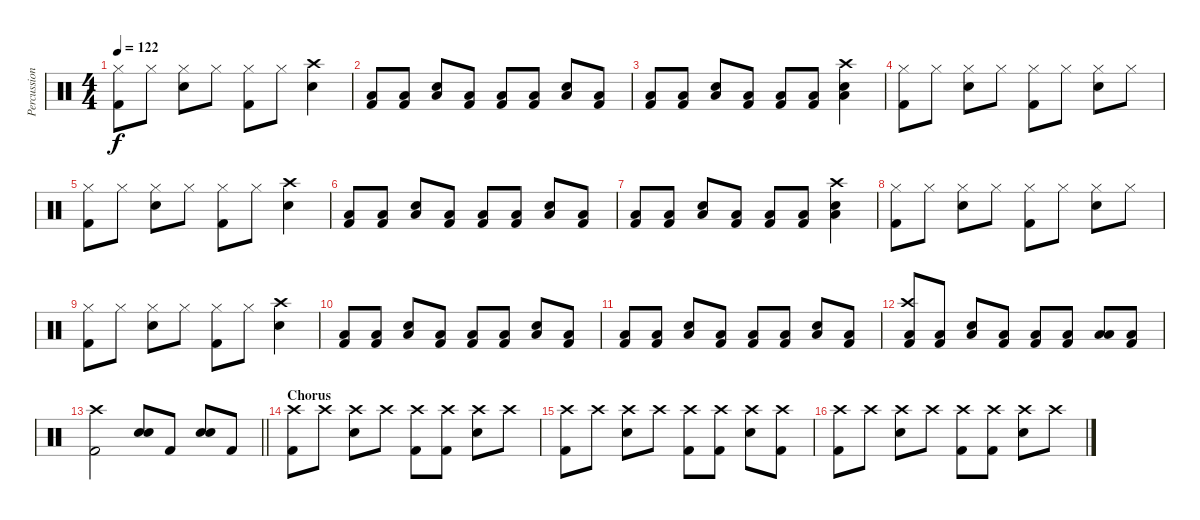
\track ("Percussion" "Percussion") {instrument percussion}
\staff {score}
\articulation defaults
\ts (4 4)
\tempo 122
\clef neutral
\ks c
("Hi-Hat (closed)" "Kick (hit) 2").8{dy f} "Hi-Hat (closed)".8 ("Hi-Hat (closed)" "Electric Snare (hit)").8 "Hi-Hat (closed)".8 ("Hi-Hat (closed)" "Kick (hit) 2").8 "Hi-Hat (closed)".8 ("Crash high (hit)" "Electric Snare (hit)").4 |
("Low Floor Tom (hit)" "Kick (hit) 2").8 ("Low Floor Tom (hit)" "Kick (hit) 2").8 ("Electric Snare (hit)" "Low Floor Tom (hit)").8 ("Low Floor Tom (hit)" "Kick (hit) 2").8 ("Low Floor Tom (hit)" "Kick (hit) 2").8 ("Low Floor Tom (hit)" "Kick (hit) 2").8 ("Electric Snare (hit)" "Low Floor Tom (hit)").8 ("Low Floor Tom (hit)" "Kick (hit) 2").8 |
("Low Floor Tom (hit)" "Kick (hit) 2").8 ("Low Floor Tom (hit)" "Kick (hit) 2").8 ("Electric Snare (hit)" "Low Floor Tom (hit)").8 ("Low Floor Tom (hit)" "Kick (hit) 2").8 ("Low Floor Tom (hit)" "Kick (hit) 2").8 ("Low Floor Tom (hit)" "Kick (hit) 2").8 ("Crash high (hit)" "Electric Snare (hit)" "Low Floor Tom (hit)").4 |
("Hi-Hat (closed)" "Kick (hit) 2").8 "Hi-Hat (closed)".8 ("Hi-Hat (closed)" "Electric Snare (hit)").8 "Hi-Hat (closed)".8 ("Hi-Hat (closed)" "Kick (hit) 2").8 "Hi-Hat (closed)".8 ("Hi-Hat (closed)" "Electric Snare (hit)").8 "Hi-Hat (closed)".8 |
("Hi-Hat (closed)" "Kick (hit) 2").8 "Hi-Hat (closed)".8 ("Hi-Hat (closed)" "Electric Snare (hit)").8 "Hi-Hat (closed)".8 ("Hi-Hat (closed)" "Kick (hit) 2").8 "Hi-Hat (closed)".8 ("Crash high (hit)" "Electric Snare (hit)").4 |
("Low Floor Tom (hit)" "Kick (hit) 2").8 ("Low Floor Tom (hit)" "Kick (hit) 2").8 ("Electric Snare (hit)" "Low Floor Tom (hit)").8 ("Low Floor Tom (hit)" "Kick (hit) 2").8 ("Low Floor Tom (hit)" "Kick (hit) 2").8 ("Low Floor Tom (hit)" "Kick (hit) 2").8 ("Electric Snare (hit)" "Low Floor Tom (hit)").8 ("Low Floor Tom (hit)" "Kick (hit) 2").8 |
("Low Floor Tom (hit)" "Kick (hit) 2").8 ("Low Floor Tom (hit)" "Kick (hit) 2").8 ("Electric Snare (hit)" "Low Floor Tom (hit)").8 ("Low Floor Tom (hit)" "Kick (hit) 2").8 ("Low Floor Tom (hit)" "Kick (hit) 2").8 ("Low Floor Tom (hit)" "Kick (hit) 2").8 ("Crash high (hit)" "Electric Snare (hit)" "Low Floor Tom (hit)").4 |
("Hi-Hat (closed)" "Kick (hit) 2").8 "Hi-Hat (closed)".8 ("Hi-Hat (closed)" "Electric Snare (hit)").8 "Hi-Hat (closed)".8 ("Hi-Hat (closed)" "Kick (hit) 2").8 "Hi-Hat (closed)".8 ("Hi-Hat (closed)" "Electric Snare (hit)").8 "Hi-Hat (closed)".8 |
("Hi-Hat (closed)" "Kick (hit) 2").8 "Hi-Hat (closed)".8 ("Hi-Hat (closed)" "Electric Snare (hit)").8 "Hi-Hat (closed)".8 ("Hi-Hat (closed)" "Kick (hit) 2").8 "Hi-Hat (closed)".8 ("Crash high (hit)" "Electric Snare (hit)").4 |
("Low Floor Tom (hit)" "Kick (hit) 2").8 ("Low Floor Tom (hit)" "Kick (hit) 2").8 ("Electric Snare (hit)" "Low Floor Tom (hit)").8 ("Low Floor Tom (hit)" "Kick (hit) 2").8 ("Low Floor Tom (hit)" "Kick (hit) 2").8 ("Low Floor Tom (hit)" "Kick (hit) 2").8 ("Electric Snare (hit)" "Low Floor Tom (hit)").8 ("Low Floor Tom (hit)" "Kick (hit) 2").8 |
("Low Floor Tom (hit)" "Kick (hit) 2").8 ("Low Floor Tom (hit)" "Kick (hit) 2").8 ("Electric Snare (hit)" "Low Floor Tom (hit)").8 ("Low Floor Tom (hit)" "Kick (hit) 2").8 ("Low Floor Tom (hit)" "Kick (hit) 2").8 ("Low Floor Tom (hit)" "Kick (hit) 2").8 ("Electric Snare (hit)" "Low Floor Tom (hit)").8 ("Low Floor Tom (hit)" "Kick (hit) 2").8 |
("Crash high (hit)" "Low Floor Tom (hit)" "Kick (hit) 2").8 ("Low Floor Tom (hit)" "Kick (hit) 2").8 ("Electric Snare (hit)" "Low Floor Tom (hit)").8 ("Low Floor Tom (hit)" "Kick (hit) 2").8 ("Low Floor Tom (hit)" "Kick (hit) 2").8 ("Low Floor Tom (hit)" "Kick (hit) 2").8 ("Low Tom (hit)" "Low Tom (hit)").8 ("Low Floor Tom (hit)" "Kick (hit) 2").8 |
\barLineRight lightlight
("Crash high (hit)" "Kick (hit) 2").2 ("Electric Snare (hit)" "Electric Snare (hit)").8 "Kick (hit) 2".8 ("Electric Snare (hit)" "Electric Snare (hit)").8 "Kick (hit) 2".8 |
\section ("" "Chorus")
("Crash high (hit)" "Kick (hit) 2").8 "Crash high (hit)".8 ("Crash high (hit)" "Electric Snare (hit)").8 "Crash high (hit)".8 ("Crash high (hit)" "Kick (hit) 2").8 ("Crash high (hit)" "Kick (hit) 2").8 ("Crash high (hit)" "Electric Snare (hit)").8 "Crash high (hit)".8 |
("Crash high (hit)" "Kick (hit) 2").8 "Crash high (hit)".8 ("Crash high (hit)" "Electric Snare (hit)").8 "Crash high (hit)".8 ("Crash high (hit)" "Kick (hit) 2").8 ("Crash high (hit)" "Kick (hit) 2").8 ("Crash high (hit)" "Electric Snare (hit)").8 ("Crash high (hit)" "Kick (hit) 2").8 |
("Crash high (hit)" "Kick (hit) 2").8 "Crash high (hit)".8 ("Crash high (hit)" "Electric Snare (hit)").8 "Crash high (hit)".8 ("Crash high (hit)" "Kick (hit) 2").8 ("Crash high (hit)" "Kick (hit) 2").8 ("Crash high (hit)" "Electric Snare (hit)").8 "Crash high (hit)".8
